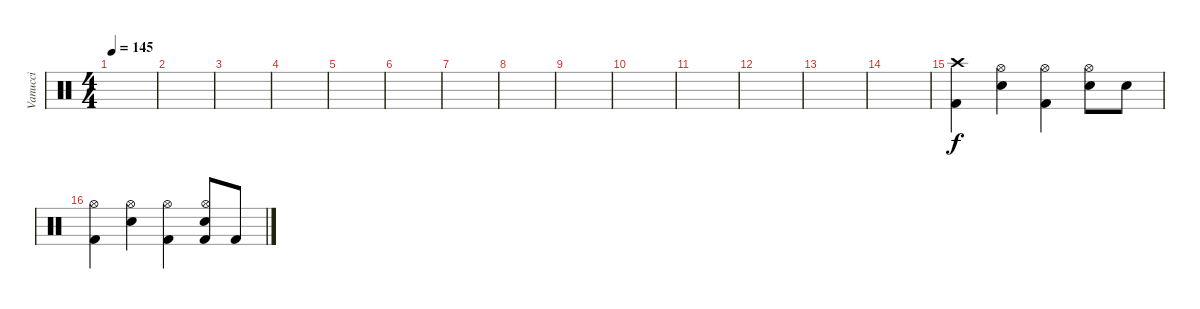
\track ("Vanucci" "Vanucci") {instrument percussion}
\staff {score}
\articulation defaults
\ts (4 4)
\tempo 145
\clef neutral
\ks c
|
|
|
|
|
|
|
|
|
|
|
|
|
|
("Crash high (hit)" "Kick (hit) 2").4 ("Hi-Hat (open)" "Electric Snare (hit)").4 ("Hi-Hat (open)" "Kick (hit) 2").4 ("Hi-Hat (open)" "Electric Snare (hit)").8 "Electric Snare (hit)".8 |
("Hi-Hat (open)" "Kick (hit) 2").4 ("Hi-Hat (open)" "Electric Snare (hit)").4 ("Hi-Hat (open)" "Kick (hit) 2").4 ("Hi-Hat (open)" "Electric Snare (hit)" "Kick (hit) 2").8 "Kick (hit) 2".8
